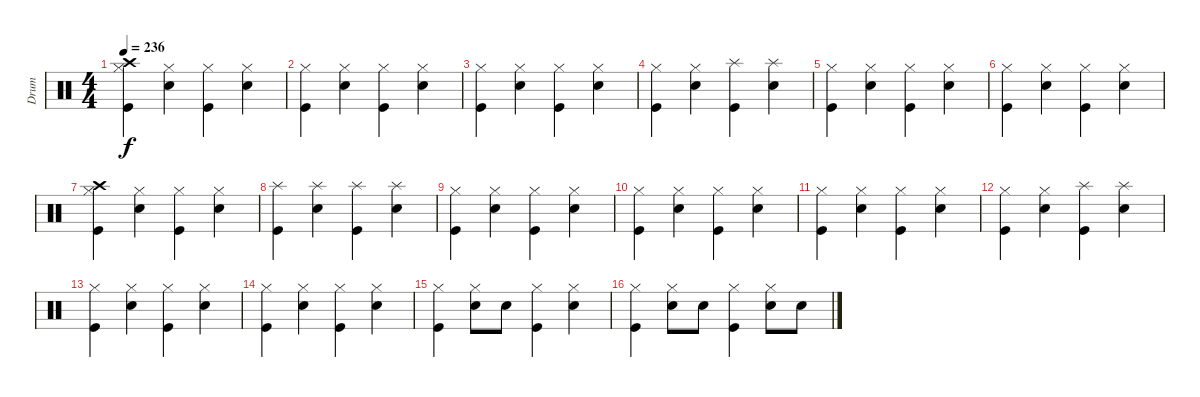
\track ("Drum" "Drum") {instrument percussion}
\staff {score}
\articulation defaults
\ts (4 4)
\tempo 236
\clef neutral
\ks c
("Crash high (hit)" "Hi-Hat (closed)" "Kick (hit)").4{dy f} ("Hi-Hat (closed)" "Snare (hit) 2").4 ("Hi-Hat (closed)" "Kick (hit)").4 ("Hi-Hat (closed)" "Snare (hit) 2").4 |
("Hi-Hat (closed)" "Kick (hit)").4 ("Hi-Hat (closed)" "Snare (hit) 2").4 ("Hi-Hat (closed)" "Kick (hit)").4 ("Hi-Hat (closed)" "Snare (hit) 2").4 |
("Hi-Hat (closed)" "Kick (hit)").4 ("Hi-Hat (closed)" "Snare (hit) 2").4 ("Hi-Hat (closed)" "Kick (hit)").4 ("Hi-Hat (closed)" "Snare (hit) 2").4 |
("Hi-Hat (closed)" "Kick (hit)").4 ("Hi-Hat (closed)" "Snare (hit) 2").4 ("Splash (hit)" "Kick (hit)").4 ("Splash (hit)" "Snare (hit) 2").4 |
("Hi-Hat (closed)" "Kick (hit)").4 ("Hi-Hat (closed)" "Snare (hit) 2").4 ("Hi-Hat (closed)" "Kick (hit)").4 ("Hi-Hat (closed)" "Snare (hit) 2").4 |
("Hi-Hat (closed)" "Kick (hit)").4 ("Hi-Hat (closed)" "Snare (hit) 2").4 ("Hi-Hat (closed)" "Kick (hit)").4 ("Hi-Hat (closed)" "Snare (hit) 2").4 |
("Crash high (hit)" "Hi-Hat (closed)" "Kick (hit)").4 ("Hi-Hat (closed)" "Snare (hit) 2").4 ("Hi-Hat (closed)" "Kick (hit)").4 ("Hi-Hat (closed)" "Snare (hit) 2").4 |
("Splash (hit)" "Kick (hit)").4 ("Splash (hit)" "Snare (hit) 2").4 ("Splash (hit)" "Kick (hit)").4 ("Splash (hit)" "Snare (hit) 2").4 |
("Hi-Hat (closed)" "Kick (hit)").4 ("Hi-Hat (closed)" "Snare (hit) 2").4 ("Hi-Hat (closed)" "Kick (hit)").4 ("Hi-Hat (closed)" "Snare (hit) 2").4 |
("Hi-Hat (closed)" "Kick (hit)").4 ("Hi-Hat (closed)" "Snare (hit) 2").4 ("Hi-Hat (closed)" "Kick (hit)").4 ("Hi-Hat (closed)" "Snare (hit) 2").4 |
("Hi-Hat (closed)" "Kick (hit)").4 ("Hi-Hat (closed)" "Snare (hit) 2").4 ("Hi-Hat (closed)" "Kick (hit)").4 ("Hi-Hat (closed)" "Snare (hit) 2").4 |
("Hi-Hat (closed)" "Kick (hit)").4 ("Hi-Hat (closed)" "Snare (hit) 2").4 ("Splash (hit)" "Kick (hit)").4 ("Splash (hit)" "Snare (hit) 2").4 |
("Hi-Hat (closed)" "Kick (hit)").4 ("Hi-Hat (closed)" "Snare (hit) 2").4 ("Hi-Hat (closed)" "Kick (hit)").4 ("Hi-Hat (closed)" "Snare (hit) 2").4 |
("Hi-Hat (closed)" "Kick (hit)").4 ("Hi-Hat (closed)" "Snare (hit) 2").4 ("Hi-Hat (closed)" "Kick (hit)").4 ("Hi-Hat (closed)" "Snare (hit) 2").4 |
("Hi-Hat (closed)" "Kick (hit)").4 ("Hi-Hat (closed)" "Snare (hit) 2").8 "Snare (hit) 2".8 ("Hi-Hat (closed)" "Kick (hit)").4 ("Hi-Hat (closed)" "Snare (hit) 2").4 |
("Hi-Hat (closed)" "Kick (hit)").4 ("Hi-Hat (closed)" "Snare (hit) 2").8 "Snare (hit) 2".8 ("Hi-Hat (closed)" "Kick (hit)").4 ("Hi-Hat (closed)" "Snare (hit) 2").8 "Snare (hit) 2".8
